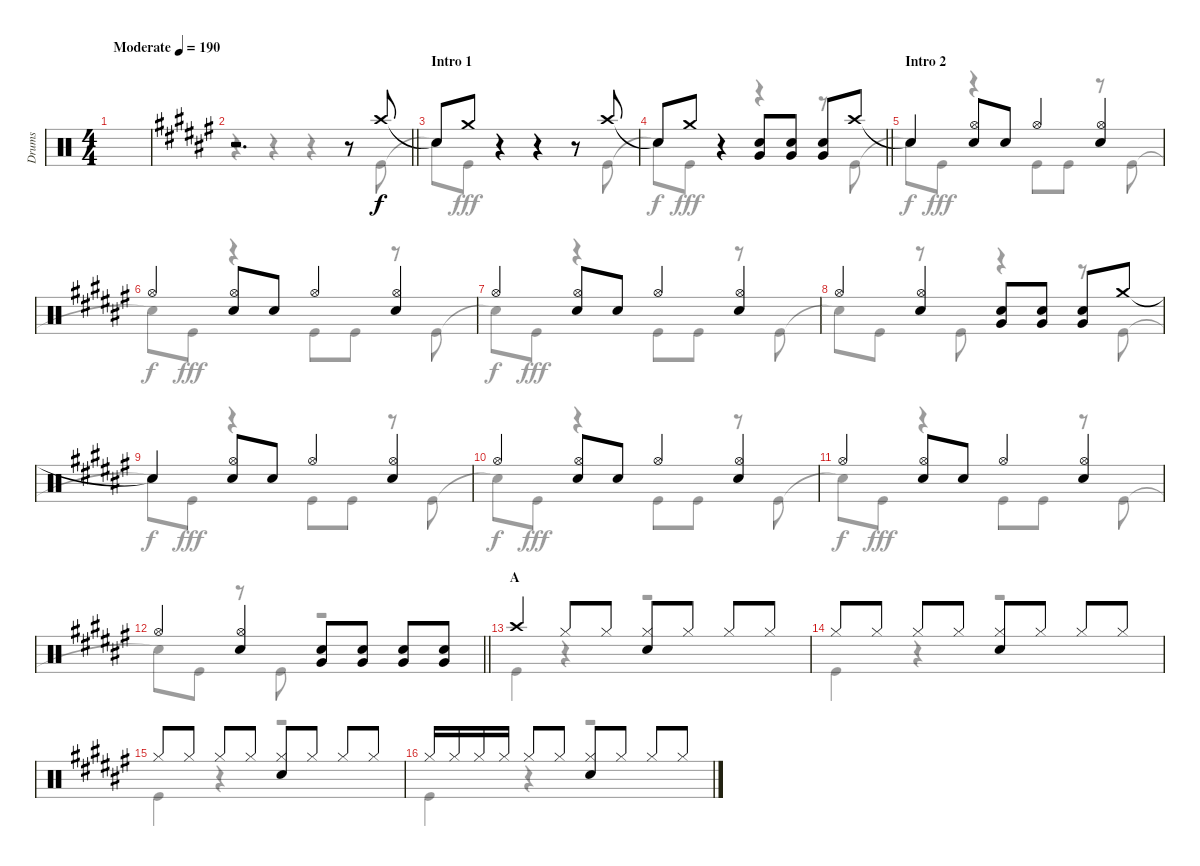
\track ("Drums" "Drums") {instrument percussion}
\staff {score}
\articulation defaults
\voice
\ts (4 4)
\tempo (190 "Moderate")
\clef neutral
\ks c
|
\barLineRight lightlight
\ks f#
r.2{d} r.8 "Crash high (hit)".8 |
\section ("" "Intro 1")
"Snare (hit)"{t}.8 "Crash medium (hit)".8 r.4 r.4 r.8 "Crash high (hit)".8 |
\barLineRight lightlight "Snare (hit)"{t}.8 "Crash medium (hit)".8
r.4 ("Snare (hit) 2" "Very Low Tom (hit)").8 ("Snare (hit) 2" "Very Low Tom (hit)").8 ("Snare (hit) 2" "Very Low Tom (hit)").8 "Crash high (hit)".8 |
\section ("" "Intro 2")
"Snare (hit)"{t}.4 ("Hi-Hat (open)" "Snare (hit) 2").8 "Snare (hit) 2".8 "Hi-Hat (open)".4 ("Hi-Hat (open)" "Snare (hit) 2").4 |
"Hi-Hat (open)".4 ("Hi-Hat (open)" "Snare (hit) 2").8 "Snare (hit) 2".8 "Hi-Hat (open)".4 ("Hi-Hat (open)" "Snare (hit) 2").4 |
"Hi-Hat (open)".4 ("Hi-Hat (open)" "Snare (hit) 2").8 "Snare (hit) 2".8 "Hi-Hat (open)".4 ("Hi-Hat (open)" "Snare (hit) 2").4 |
"Hi-Hat (open)".4 ("Hi-Hat (open)" "Snare (hit) 2").4 ("Snare (hit) 2" "Very Low Tom (hit)").8 ("Snare (hit) 2" "Very Low Tom (hit)").8 ("Snare (hit) 2" "Very Low Tom (hit)").8 "Crash medium (hit)".8 |
"Snare (hit)"{t}.4 ("Hi-Hat (open)" "Snare (hit) 2").8 "Snare (hit) 2".8 "Hi-Hat (open)".4 ("Hi-Hat (open)" "Snare (hit) 2").4 |
"Hi-Hat (open)".4 ("Hi-Hat (open)" "Snare (hit) 2").8 "Snare (hit) 2".8 "Hi-Hat (open)".4 ("Hi-Hat (open)" "Snare (hit) 2").4 |
"Hi-Hat (open)".4 ("Hi-Hat (open)" "Snare (hit) 2").8 "Snare (hit) 2".8 "Hi-Hat (open)".4 ("Hi-Hat (open)" "Snare (hit) 2").4 |
\barLineRight lightlight "Hi-Hat (open)".4
("Hi-Hat (open)" "Snare (hit) 2").4 ("Snare (hit) 2" "Very Low Tom (hit)").8 ("Snare (hit) 2" "Very Low Tom (hit)").8 ("Snare (hit) 2" "Very Low Tom (hit)").8 ("Snare (hit) 2" "Very Low Tom (hit)").8 |
\section ("" "A")
"Crash high (hit)".4 "Hi-Hat (closed)".8 "Hi-Hat (closed)".8 ("Hi-Hat (closed)" "Snare (hit) 2").8 "Hi-Hat (closed)".8 "Hi-Hat (closed)".8 "Hi-Hat (closed)".8 |
"Hi-Hat (closed)".8 "Hi-Hat (closed)".8 "Hi-Hat (closed)".8 "Hi-Hat (closed)".8 ("Hi-Hat (closed)" "Snare (hit) 2").8 "Hi-Hat (closed)".8 "Hi-Hat (closed)".8 "Hi-Hat (closed)".8 |
"Hi-Hat (closed)".8 "Hi-Hat (closed)".8 "Hi-Hat (closed)".8 "Hi-Hat (closed)".8 ("Hi-Hat (closed)" "Snare (hit) 2").8 "Hi-Hat (closed)".8 "Hi-Hat (closed)".8 "Hi-Hat (closed)".8 |
"Hi-Hat (closed)".16 "Hi-Hat (closed)".16 "Hi-Hat (closed)".16 "Hi-Hat (closed)".16 "Hi-Hat (closed)".8 "Hi-Hat (closed)".8 ("Hi-Hat (closed)" "Snare (hit) 2").8 "Hi-Hat (closed)".8 "Hi-Hat (closed)".8 "Hi-Hat (closed)".8
\voice
\clef neutral
\ottava regular
\simile none
\ks c
|
\barLineRight lightlight
\ks f#
r.4 r.4 r.4 r.8 "Kick (hit)".8 |
"Snare (hit)"{t}.8{dy f} "Kick (hit)".8{dy fff} r.4 r.4 r.8 "Kick (hit)".8 |
\barLineRight lightlight "Snare (hit)"{t}.8{dy f} "Kick (hit)".8{dy fff}
r.4 r.4 r.8 "Kick (hit)".8 |
"Snare (hit)"{t}.8{dy f} "Kick (hit)".8{dy fff} r.4 "Kick (hit)".8 "Kick (hit)".8 r.8 "Kick (hit)".8 |
"Snare (hit)"{t}.8{dy f} "Kick (hit)".8{dy fff} r.4 "Kick (hit)".8 "Kick (hit)".8 r.8 "Kick (hit)".8 |
"Snare (hit)"{t}.8{dy f} "Kick (hit)".8{dy fff} r.4 "Kick (hit)".8 "Kick (hit)".8 r.8 "Kick (hit)".8 |
"Snare (hit)"{t}.8 "Kick (hit)".8 r.8 "Kick (hit)".8 r.4 r.8 "Kick (hit)".8 |
"Snare (hit)"{t}.8{dy f} "Kick (hit)".8{dy fff} r.4 "Kick (hit)".8 "Kick (hit)".8 r.8 "Kick (hit)".8 |
"Snare (hit)"{t}.8{dy f} "Kick (hit)".8{dy fff} r.4 "Kick (hit)".8 "Kick (hit)".8 r.8 "Kick (hit)".8 |
"Snare (hit)"{t}.8{dy f} "Kick (hit)".8{dy fff} r.4 "Kick (hit)".8 "Kick (hit)".8 r.8 "Kick (hit)".8 |
\barLineRight lightlight "Snare (hit)"{t}.8 "Kick (hit)".8
r.8 "Kick (hit)".8 r.2 |
"Kick (hit)".4 r.4 r.2 |
"Kick (hit)".4 r.4 r.2 |
"Kick (hit)".4 r.4 r.2 |
"Kick (hit)".4 r.4 r.2
